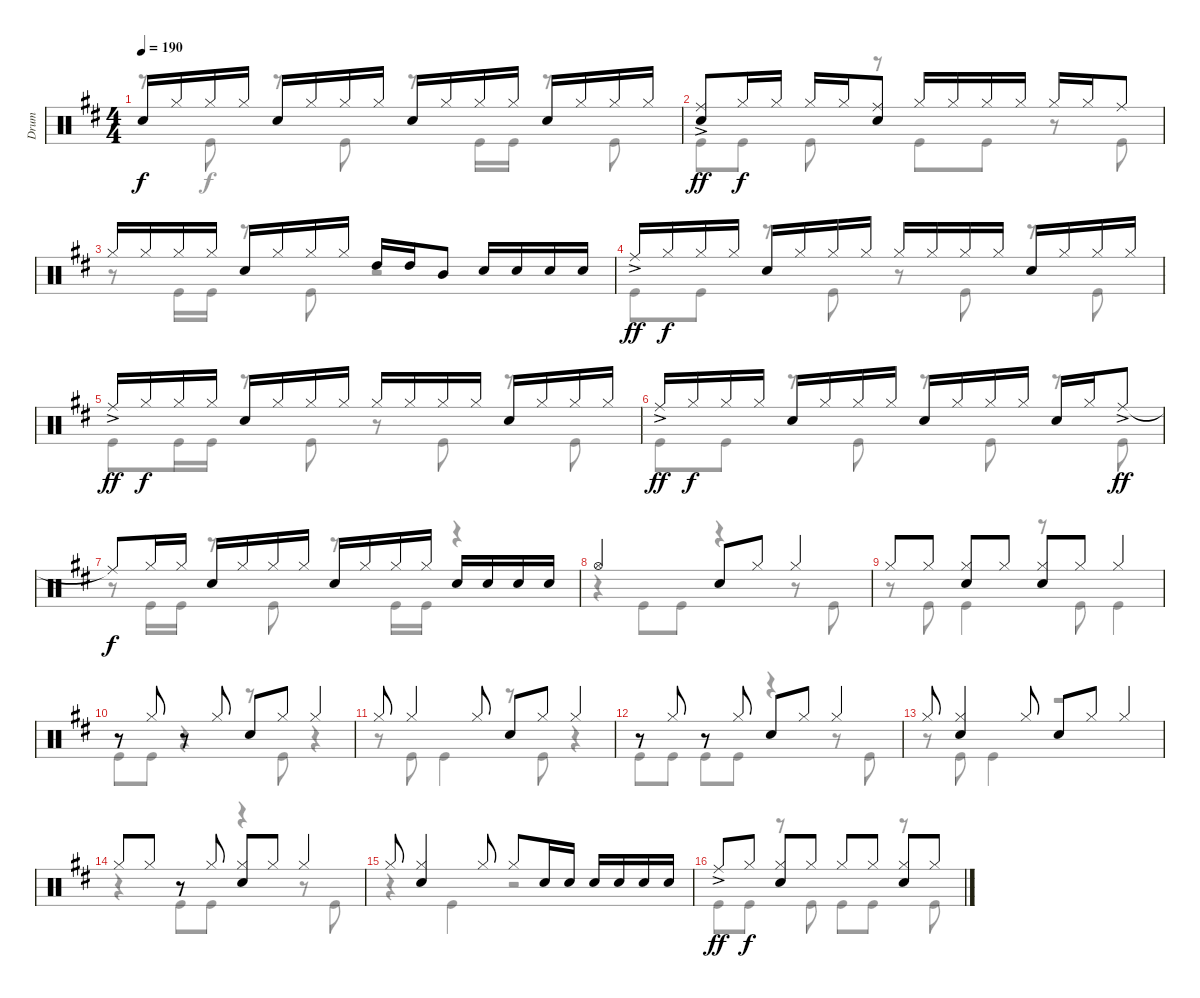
\track ("Drum" "Drum") {instrument percussion}
\staff {score}
\articulation defaults
\voice
\ts (4 4)
\tempo 190
\clef neutral
\ks d "Snare (hit) 2".16{dy f} "Hi-Hat (closed)".16 "Hi-Hat (closed)".16 "Hi-Hat (closed)".16 "Snare (hit) 2".16 "Hi-Hat (closed)".16 "Hi-Hat (closed)".16 "Hi-Hat (closed)".16 "Snare (hit) 2".16 "Hi-Hat (closed)".16 "Hi-Hat (closed)".16 "Hi-Hat (closed)".16 "Snare (hit) 2".16 "Hi-Hat (closed)".16 "Hi-Hat (closed)".16 "Hi-Hat (closed)".16
|
("Ride (middle)"{ac} "Snare (hit) 2").8{dy ff} "Hi-Hat (closed)".16{dy f} "Hi-Hat (closed)".16 "Hi-Hat (closed)".16 "Hi-Hat (closed)".16 ("Ride (middle)" "Snare (hit) 2").8 "Hi-Hat (closed)".16 "Hi-Hat (closed)".16 "Hi-Hat (closed)".16 "Hi-Hat (closed)".16 "Hi-Hat (closed)".16 "Hi-Hat (closed)".16 "Ride (middle)".8 |
"Hi-Hat (closed)".16 "Hi-Hat (closed)".16 "Hi-Hat (closed)".16 "Hi-Hat (closed)".16 "Snare (hit) 2".16 "Hi-Hat (closed)".16 "Hi-Hat (closed)".16 "Hi-Hat (closed)".16 "High Tom (hit)".16 "High Tom (hit)".16 "Mid Tom (hit)".8 "Snare (hit) 2".16 "Snare (hit) 2".16 "Snare (hit) 2".16 "Snare (hit) 2".16 |
"Ride (middle)"{ac}.16{dy ff} "Hi-Hat (closed)".16{dy f} "Hi-Hat (closed)".16 "Hi-Hat (closed)".16 "Snare (hit) 2".16 "Hi-Hat (closed)".16 "Hi-Hat (closed)".16 "Hi-Hat (closed)".16 "Hi-Hat (closed)".16 "Hi-Hat (closed)".16 "Hi-Hat (closed)".16 "Hi-Hat (closed)".16 "Snare (hit) 2".16 "Hi-Hat (closed)".16 "Hi-Hat (closed)".16 "Hi-Hat (closed)".16 |
"Ride (middle)"{ac}.16{dy ff} "Hi-Hat (closed)".16{dy f} "Hi-Hat (closed)".16 "Hi-Hat (closed)".16 "Snare (hit) 2".16 "Hi-Hat (closed)".16 "Hi-Hat (closed)".16 "Hi-Hat (closed)".16 "Hi-Hat (closed)".16 "Hi-Hat (closed)".16 "Hi-Hat (closed)".16 "Hi-Hat (closed)".16 "Snare (hit) 2".16 "Hi-Hat (closed)".16 "Hi-Hat (closed)".16 "Hi-Hat (closed)".16 |
"Ride (middle)"{ac}.16{dy ff} "Hi-Hat (closed)".16{dy f} "Hi-Hat (closed)".16 "Hi-Hat (closed)".16 "Snare (hit) 2".16 "Hi-Hat (closed)".16 "Hi-Hat (closed)".16 "Hi-Hat (closed)".16 "Snare (hit) 2".16 "Hi-Hat (closed)".16 "Hi-Hat (closed)".16 "Hi-Hat (closed)".16 "Snare (hit) 2".16 "Hi-Hat (closed)".16 "Ride (middle)"{ac}.8{dy ff} |
"Ride (middle)"{t}.8{dy f} "Hi-Hat (closed)".16 "Hi-Hat (closed)".16 "Snare (hit) 2".16 "Hi-Hat (closed)".16 "Hi-Hat (closed)".16 "Hi-Hat (closed)".16 "Snare (hit) 2".16 "Hi-Hat (closed)".16 "Hi-Hat (closed)".16 "Hi-Hat (closed)".16 "Snare (hit) 2".16 "Snare (hit) 2".16 "Snare (hit) 2".16 "Snare (hit) 2".16 |
"Hi-Hat (open)".2 "Snare (hit) 2".8 "Hi-Hat (closed)".8 "Hi-Hat (closed)".4 |
"Hi-Hat (closed)".8 "Hi-Hat (closed)".8 ("Hi-Hat (closed)" "Snare (hit) 2").8 "Hi-Hat (closed)".8 ("Hi-Hat (closed)" "Snare (hit) 2").8 "Hi-Hat (closed)".8 "Hi-Hat (closed)".4 |
r.8 "Hi-Hat (closed)".8 r.8 "Hi-Hat (closed)".8 "Snare (hit) 2".8 "Hi-Hat (closed)".8 "Hi-Hat (closed)".4 |
"Hi-Hat (closed)".8 "Hi-Hat (closed)".4 "Hi-Hat (closed)".8 "Snare (hit) 2".8 "Hi-Hat (closed)".8 "Hi-Hat (closed)".4 |
r.8 "Hi-Hat (closed)".8 r.8 "Hi-Hat (closed)".8 "Snare (hit) 2".8 "Hi-Hat (closed)".8 "Hi-Hat (closed)".4 |
"Hi-Hat (closed)".8 ("Hi-Hat (closed)" "Snare (hit) 2").4 "Hi-Hat (closed)".8 "Snare (hit) 2".8 "Hi-Hat (closed)".8 "Hi-Hat (closed)".4 |
"Hi-Hat (closed)".8 "Hi-Hat (closed)".8 r.8 "Hi-Hat (closed)".8 ("Hi-Hat (closed)" "Snare (hit) 2").8 "Hi-Hat (closed)".8 "Hi-Hat (closed)".4 |
"Hi-Hat (closed)".8 ("Hi-Hat (closed)" "Snare (hit) 2").4 "Hi-Hat (closed)".8 "Hi-Hat (closed)".8 "Snare (hit) 2".16 "Snare (hit) 2".16 "Snare (hit) 2".16 "Snare (hit) 2".16 "Snare (hit) 2".16 "Snare (hit) 2".16 |
"Ride (middle)"{ac}.8{dy ff} "Hi-Hat (closed)".8{dy f} ("Hi-Hat (closed)" "Snare (hit) 2").8 "Hi-Hat (closed)".8 "Hi-Hat (closed)".8 "Hi-Hat (closed)".8 ("Hi-Hat (closed)" "Snare (hit) 2").8 "Hi-Hat (closed)".8
\voice
\clef neutral
\ottava regular
\simile none
\ks d
r.8{dy f} "Kick (hit)".8 r.8 "Kick (hit)".8 r.8 "Kick (hit)".16 "Kick (hit)".16 r.8 "Kick (hit)".8 |
"Kick (hit)".8 "Kick (hit)".8 "Kick (hit)".8 r.8 "Kick (hit)".8 "Kick (hit)".8 r.8 "Kick (hit)".8 |
r.8 "Kick (hit)".16 "Kick (hit)".16 r.8 "Kick (hit)".8 r.2 |
"Kick (hit)".8 "Kick (hit)".8 r.8 "Kick (hit)".8 r.8 "Kick (hit)".8 r.8 "Kick (hit)".8 |
"Kick (hit)".8 "Kick (hit)".16 "Kick (hit)".16 r.8 "Kick (hit)".8 r.8 "Kick (hit)".8 r.8 "Kick (hit)".8 |
"Kick (hit)".8 "Kick (hit)".8 r.8 "Kick (hit)".8 r.8 "Kick (hit)".8 r.8 "Kick (hit)".8 |
r.8 "Kick (hit)".16 "Kick (hit)".16 r.8 "Kick (hit)".8 r.8 "Kick (hit)".16 "Kick (hit)".16 r.4 |
r.4 "Kick (hit)".8 "Kick (hit)".8 r.4 r.8 "Kick (hit)".8 |
r.8 "Kick (hit)".8 "Kick (hit)".4 r.8 "Kick (hit)".8 "Kick (hit)".4 |
"Kick (hit)".8 "Kick (hit)".8 r.4 r.8 "Kick (hit)".8 r.4 |
r.8 "Kick (hit)".8 "Kick (hit)".4 r.8 "Kick (hit)".8 r.4 |
"Kick (hit)".8 "Kick (hit)".8 "Kick (hit)".8 "Kick (hit)".8 r.4 r.8 "Kick (hit)".8 |
r.8 "Kick (hit)".8 "Kick (hit)".4 r.2 |
r.4 "Kick (hit)".8 "Kick (hit)".8 r.4 r.8 "Kick (hit)".8 |
r.4 "Kick (hit)".4 r.2 |
"Kick (hit)".8 "Kick (hit)".8 r.8 "Kick (hit)".8 "Kick (hit)".8 "Kick (hit)".8 r.8 "Kick (hit)".8
